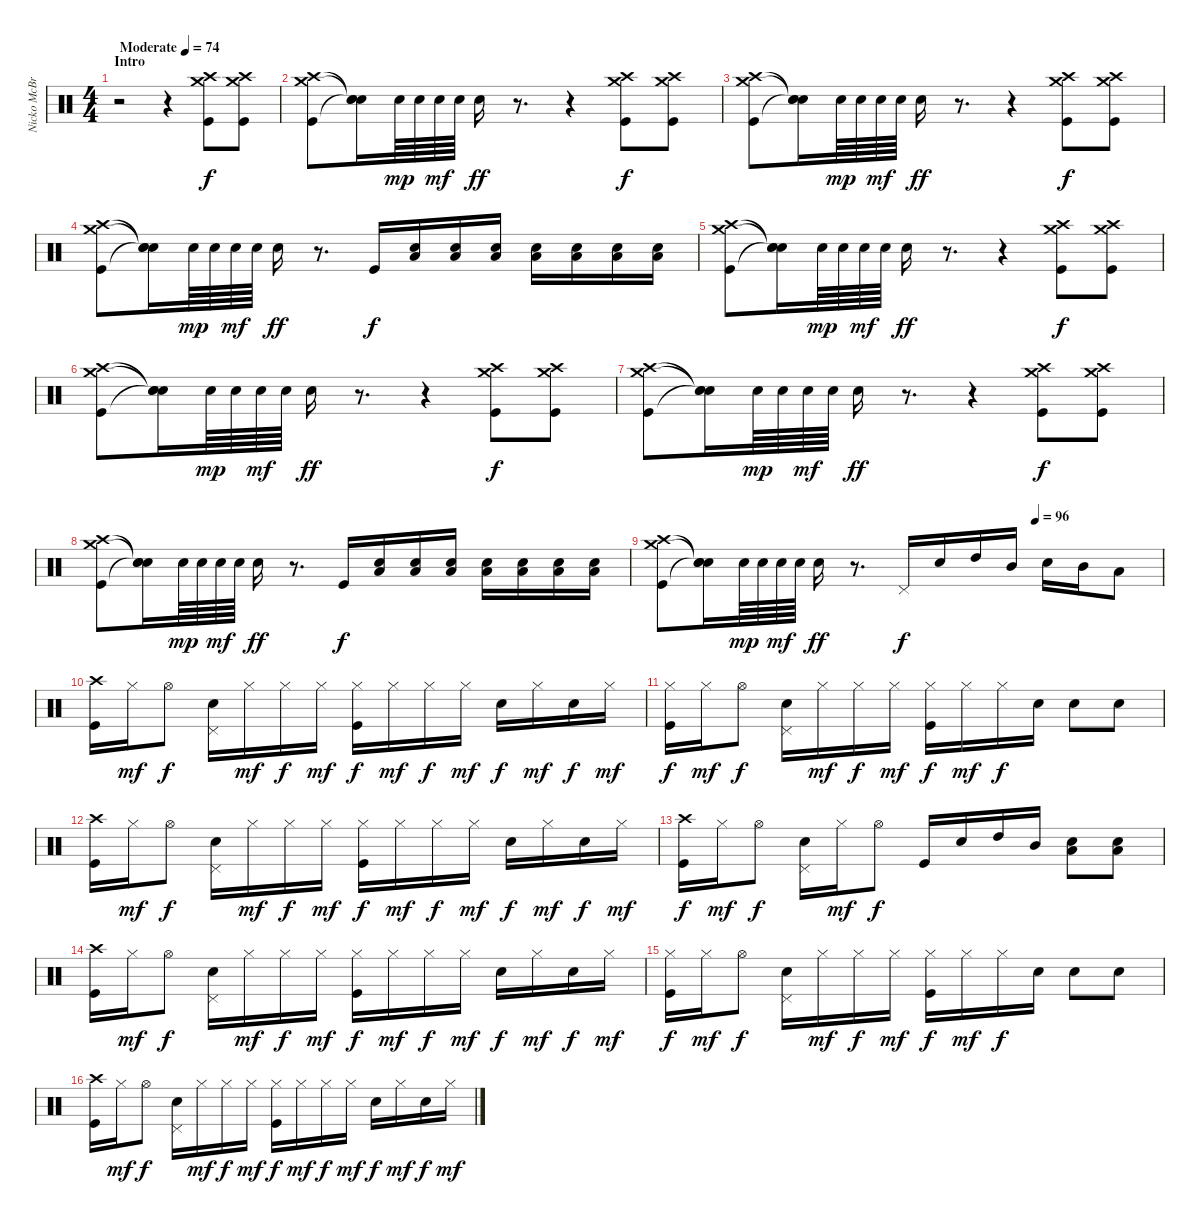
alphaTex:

\track ("Nicko McBrain" "Nicko McBr") {instrument percussion}
\staff {score}
\articulation defaults
\ts (4 4)
\section ("" "Intro")
\tempo (74 "Moderate")
\clef neutral
\ks c
r.2{dy f} r.4 ("Crash high (hit)" "Crash medium (hit)" "Kick (hit)").8 ("Crash high (hit)" "Crash medium (hit)" "Kick (hit)").8 |
("Crash high (hit)" "Crash medium (hit)" "Kick (hit)").8 ("Snare (hit)"{t} "Snare (hit)"{t} "Snare (hit)"{t}).16 "Electric Snare (hit)".64{dy mp} "Electric Snare (hit)".64 "Electric Snare (hit)".64{dy mf} "Electric Snare (hit)".64 "Electric Snare (hit)".16{dy ff} r.8{d} r.4 ("Crash medium (hit)" "Crash high (hit)" "Kick (hit)").8{dy f} ("Crash high (hit)" "Crash medium (hit)" "Kick (hit)").8 |
("Crash high (hit)" "Crash medium (hit)" "Kick (hit)").8 ("Snare (hit)"{t} "Snare (hit)"{t} "Snare (hit)"{t}).16 "Electric Snare (hit)".64{dy mp} "Electric Snare (hit)".64 "Electric Snare (hit)".64{dy mf} "Electric Snare (hit)".64 "Electric Snare (hit)".16{dy ff} r.8{d} r.4 ("Crash medium (hit)" "Crash high (hit)" "Kick (hit)").8{dy f} ("Crash high (hit)" "Crash medium (hit)" "Kick (hit)").8 |
("Crash high (hit)" "Crash medium (hit)" "Kick (hit)").8 ("Snare (hit)"{t} "Snare (hit)"{t} "Snare (hit)"{t}).16 "Electric Snare (hit)".64{dy mp} "Electric Snare (hit)".64 "Electric Snare (hit)".64{dy mf} "Electric Snare (hit)".64 "Electric Snare (hit)".16{dy ff} r.8{d} "Kick (hit)".16{dy f} ("Electric Snare (hit)" "Low Floor Tom (hit)").16 ("Electric Snare (hit)" "Low Floor Tom (hit)").16 ("Electric Snare (hit)" "Low Floor Tom (hit)").16 ("Electric Snare (hit)" "Low Floor Tom (hit)").16 ("Electric Snare (hit)" "Low Floor Tom (hit)").16 ("Electric Snare (hit)" "Low Floor Tom (hit)").16 ("Electric Snare (hit)" "Low Floor Tom (hit)").16 |
("Crash high (hit)" "Crash medium (hit)" "Kick (hit)").8 ("Snare (hit)"{t} "Snare (hit)"{t} "Snare (hit)"{t}).16 "Electric Snare (hit)".64{dy mp} "Electric Snare (hit)".64 "Electric Snare (hit)".64{dy mf} "Electric Snare (hit)".64 "Electric Snare (hit)".16{dy ff} r.8{d} r.4 ("Crash medium (hit)" "Crash high (hit)" "Kick (hit)").8{dy f} ("Crash high (hit)" "Crash medium (hit)" "Kick (hit)").8 |
("Crash high (hit)" "Crash medium (hit)" "Kick (hit)").8 ("Snare (hit)"{t} "Snare (hit)"{t} "Snare (hit)"{t}).16 "Electric Snare (hit)".64{dy mp} "Electric Snare (hit)".64 "Electric Snare (hit)".64{dy mf} "Electric Snare (hit)".64 "Electric Snare (hit)".16{dy ff} r.8{d} r.4 ("Crash medium (hit)" "Crash high (hit)" "Kick (hit)").8{dy f} ("Crash high (hit)" "Crash medium (hit)" "Kick (hit)").8 |
("Crash high (hit)" "Crash medium (hit)" "Kick (hit)").8 ("Snare (hit)"{t} "Snare (hit)"{t} "Snare (hit)"{t}).16 "Electric Snare (hit)".64{dy mp} "Electric Snare (hit)".64 "Electric Snare (hit)".64{dy mf} "Electric Snare (hit)".64 "Electric Snare (hit)".16{dy ff} r.8{d} r.4 ("Crash medium (hit)" "Crash high (hit)" "Kick (hit)").8{dy f} ("Crash high (hit)" "Crash medium (hit)" "Kick (hit)").8 |
("Crash high (hit)" "Crash medium (hit)" "Kick (hit)").8 ("Snare (hit)"{t} "Snare (hit)"{t} "Snare (hit)"{t}).16 "Electric Snare (hit)".64{dy mp} "Electric Snare (hit)".64 "Electric Snare (hit)".64{dy mf} "Electric Snare (hit)".64 "Electric Snare (hit)".16{dy ff} r.8{d} "Kick (hit)".16{dy f} ("Electric Snare (hit)" "Low Floor Tom (hit)").16 ("Electric Snare (hit)" "Low Floor Tom (hit)").16 ("Electric Snare (hit)" "Low Floor Tom (hit)").16 ("Electric Snare (hit)" "Low Floor Tom (hit)").16 ("Electric Snare (hit)" "Low Floor Tom (hit)").16 ("Electric Snare (hit)" "Low Floor Tom (hit)").16 ("Electric Snare (hit)" "Low Floor Tom (hit)").16 |
\tempo (96 0.75)
("Crash high (hit)" "Crash medium (hit)" "Kick (hit)").8 ("Snare (hit)"{t} "Snare (hit)"{t} "Snare (hit)"{t}).16 "Electric Snare (hit)".64{dy mp} "Electric Snare (hit)".64 "Electric Snare (hit)".64{dy mf} "Electric Snare (hit)".64 "Electric Snare (hit)".16{dy ff} r.8{d} "Pedal Hi-Hat (hit)".16{dy f} "Electric Snare (hit)".16 "High Tom (hit)".16 "Mid Tom (hit)".16 "Electric Snare (hit)".16 "Mid Tom (hit)".16 "Low Tom (hit)".8 |
("Crash high (hit)" "Kick (hit)").16 "Hi-Hat (closed)".16{dy mf} "Hi-Hat (open)".8{dy f} ("Electric Snare (hit)" "Pedal Hi-Hat (hit)").16 "Hi-Hat (closed)".16{dy mf} "Hi-Hat (closed)".16{dy f} "Hi-Hat (closed)".16{dy mf} ("Hi-Hat (closed)" "Kick (hit)").16{dy f} "Hi-Hat (closed)".16{dy mf} "Hi-Hat (closed)".16{dy f} "Hi-Hat (closed)".16{dy mf} "Electric Snare (hit)".16{dy f} "Hi-Hat (closed)".16{dy mf} "Electric Snare (hit)".16{dy f} "Hi-Hat (closed)".16{dy mf} |
("Hi-Hat (closed)" "Kick (hit)").16{dy f} "Hi-Hat (closed)".16{dy mf} "Hi-Hat (open)".8{dy f} ("Electric Snare (hit)" "Pedal Hi-Hat (hit)").16 "Hi-Hat (closed)".16{dy mf} "Hi-Hat (closed)".16{dy f} "Hi-Hat (closed)".16{dy mf} ("Hi-Hat (closed)" "Kick (hit)").16{dy f} "Hi-Hat (closed)".16{dy mf} "Hi-Hat (closed)".16{dy f} "Electric Snare (hit)".16 "Electric Snare (hit)".8 "Electric Snare (hit)".8 |
("Crash high (hit)" "Kick (hit)").16 "Hi-Hat (closed)".16{dy mf} "Hi-Hat (open)".8{dy f} ("Electric Snare (hit)" "Pedal Hi-Hat (hit)").16 "Hi-Hat (closed)".16{dy mf} "Hi-Hat (closed)".16{dy f} "Hi-Hat (closed)".16{dy mf} ("Hi-Hat (closed)" "Kick (hit)").16{dy f} "Hi-Hat (closed)".16{dy mf} "Hi-Hat (closed)".16{dy f} "Hi-Hat (closed)".16{dy mf} "Electric Snare (hit)".16{dy f} "Hi-Hat (closed)".16{dy mf} "Electric Snare (hit)".16{dy f} "Hi-Hat (closed)".16{dy mf} |
("Crash high (hit)" "Kick (hit)").16{dy f} "Hi-Hat (closed)".16{dy mf} "Hi-Hat (open)".8{dy f} ("Electric Snare (hit)" "Pedal Hi-Hat (hit)").16 "Hi-Hat (closed)".16{dy mf} "Hi-Hat (open)".8{dy f} "Kick (hit)".16 "Electric Snare (hit)".16 "High Tom (hit)".16 "Mid Tom (hit)".16 ("Electric Snare (hit)" "Low Floor Tom (hit)").8 ("Electric Snare (hit)" "Low Floor Tom (hit)").8 |
("Crash high (hit)" "Kick (hit)").16 "Hi-Hat (closed)".16{dy mf} "Hi-Hat (open)".8{dy f} ("Electric Snare (hit)" "Pedal Hi-Hat (hit)").16 "Hi-Hat (closed)".16{dy mf} "Hi-Hat (closed)".16{dy f} "Hi-Hat (closed)".16{dy mf} ("Hi-Hat (closed)" "Kick (hit)").16{dy f} "Hi-Hat (closed)".16{dy mf} "Hi-Hat (closed)".16{dy f} "Hi-Hat (closed)".16{dy mf} "Electric Snare (hit)".16{dy f} "Hi-Hat (closed)".16{dy mf} "Electric Snare (hit)".16{dy f} "Hi-Hat (closed)".16{dy mf} |
("Hi-Hat (closed)" "Kick (hit)").16{dy f} "Hi-Hat (closed)".16{dy mf} "Hi-Hat (open)".8{dy f} ("Electric Snare (hit)" "Pedal Hi-Hat (hit)").16 "Hi-Hat (closed)".16{dy mf} "Hi-Hat (closed)".16{dy f} "Hi-Hat (closed)".16{dy mf} ("Hi-Hat (closed)" "Kick (hit)").16{dy f} "Hi-Hat (closed)".16{dy mf} "Hi-Hat (closed)".16{dy f} "Electric Snare (hit)".16 "Electric Snare (hit)".8 "Electric Snare (hit)".8 |
("Crash high (hit)" "Kick (hit)").16 "Hi-Hat (closed)".16{dy mf} "Hi-Hat (open)".8{dy f} ("Electric Snare (hit)" "Pedal Hi-Hat (hit)").16 "Hi-Hat (closed)".16{dy mf} "Hi-Hat (closed)".16{dy f} "Hi-Hat (closed)".16{dy mf} ("Hi-Hat (closed)" "Kick (hit)").16{dy f} "Hi-Hat (closed)".16{dy mf} "Hi-Hat (closed)".16{dy f} "Hi-Hat (closed)".16{dy mf} "Electric Snare (hit)".16{dy f} "Hi-Hat (closed)".16{dy mf} "Electric Snare (hit)".16{dy f} "Hi-Hat (closed)".16{dy mf}
